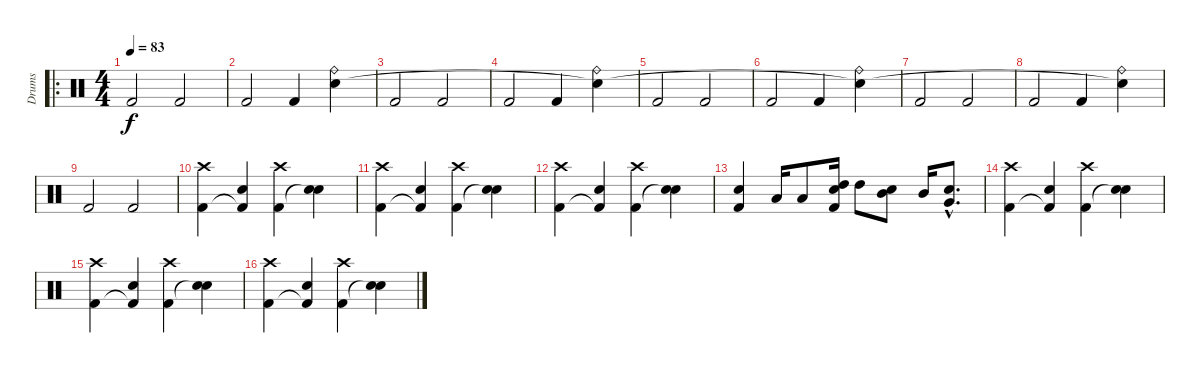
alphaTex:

\track ("Drums" "Drums") {instrument percussion}
\staff {score}
\articulation defaults
\ro
\ts (4 4)
\tempo 83
\clef neutral
\ks c "Kick (hit) 2".2{dy f} "Kick (hit) 2".2
|
"Kick (hit) 2".2 "Kick (hit) 2".4 ("Ride (bell)" "Snare (hit)").4 |
"Kick (hit) 2".2 "Kick (hit) 2".2 |
"Kick (hit) 2".2 "Kick (hit) 2".4 ("Ride (bell)" "Snare (hit)"{t}).4 |
"Kick (hit) 2".2 "Kick (hit) 2".2 |
"Kick (hit) 2".2 "Kick (hit) 2".4 ("Ride (bell)" "Snare (hit)"{t}).4 |
"Kick (hit) 2".2 "Kick (hit) 2".2 |
"Kick (hit) 2".2 "Kick (hit) 2".4 ("Ride (bell)" "Snare (hit)"{t}).4 |
"Kick (hit) 2".2 "Kick (hit) 2".2 |
("Crash high (hit)" "Kick (hit) 2").4 ("Electric Snare (hit)" "Kick (hit) 2"{t}).4 ("Crash high (hit)" "Kick (hit) 2").4 ("Electric Snare (hit)" "Snare (hit)"{t}).4 |
("Crash high (hit)" "Kick (hit) 2").4 ("Electric Snare (hit)" "Kick (hit) 2"{t}).4 ("Crash high (hit)" "Kick (hit) 2").4 ("Electric Snare (hit)" "Snare (hit)"{t}).4 |
("Crash high (hit)" "Kick (hit) 2").4 ("Electric Snare (hit)" "Kick (hit) 2"{t}).4 ("Crash high (hit)" "Kick (hit) 2").4 ("Electric Snare (hit)" "Snare (hit)"{t}).4 |
("Electric Snare (hit)" "Kick (hit) 2").4 "Low Tom (hit)".16 "Low Tom (hit)".8 ("High Tom (hit)" "Electric Snare (hit)" "Kick (hit) 2").16 "High Tom (hit)".8 ("Mid Tom (hit)" "Electric Snare (hit)").8 "Mid Tom (hit)".16 ("Very Low Tom (hit)"{hac} "Electric Snare (hit)"{hac}).8{d} |
("Crash high (hit)" "Kick (hit) 2").4 ("Electric Snare (hit)" "Kick (hit) 2"{t}).4 ("Crash high (hit)" "Kick (hit) 2").4 ("Electric Snare (hit)" "Snare (hit)"{t}).4 |
("Crash high (hit)" "Kick (hit) 2").4 ("Electric Snare (hit)" "Kick (hit) 2"{t}).4 ("Crash high (hit)" "Kick (hit) 2").4 ("Electric Snare (hit)" "Snare (hit)"{t}).4 |
("Crash high (hit)" "Kick (hit) 2").4 ("Electric Snare (hit)" "Kick (hit) 2"{t}).4 ("Crash high (hit)" "Kick (hit) 2").4 ("Electric Snare (hit)" "Snare (hit)"{t}).4
